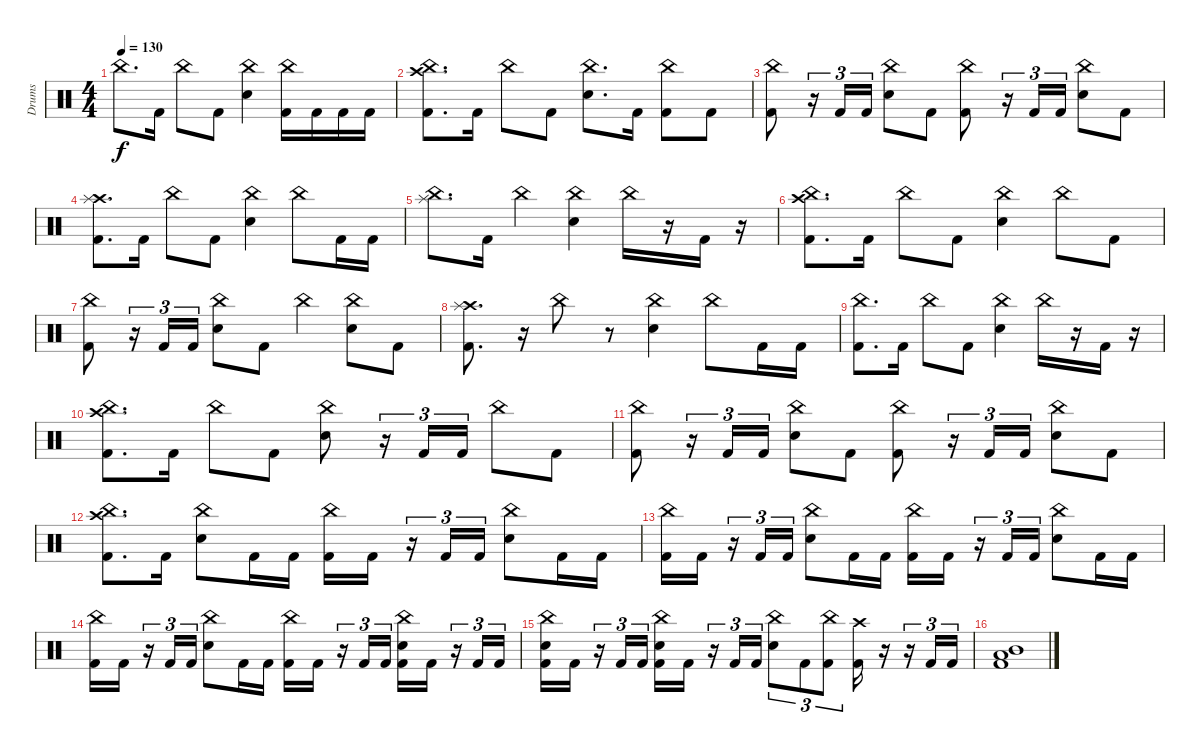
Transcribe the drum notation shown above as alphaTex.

\track ("Drums" "Drums") {instrument percussion}
\staff {score}
\articulation defaults
\ts (4 4)
\tempo 130
\clef neutral
\ks c "China (hit)".8{d dy f} "Kick (hit) 2".16 "China (hit)".8 "Kick (hit) 2".8
("China (hit)" "Electric Snare (hit)").4 ("China (hit)" "Kick (hit) 2").16 "Kick (hit) 2".16 "Kick (hit) 2".16 "Kick (hit) 2".16 |
("China (hit)" "Crash high (hit)" "Kick (hit) 2").8{d} "Kick (hit) 2".16 "China (hit)".8 "Kick (hit) 2".8 ("China (hit)" "Electric Snare (hit)").8{d} "Kick (hit) 2".16 ("China (hit)" "Kick (hit) 2").8 "Kick (hit) 2".8 |
("China (hit)" "Kick (hit) 2").8 r.16{tu (3 2)} "Kick (hit) 2".16{tu (3 2)} "Kick (hit) 2".16{tu (3 2)} ("China (hit)" "Electric Snare (hit)").8 "Kick (hit) 2".8 ("China (hit)" "Kick (hit) 2").8 r.16{tu (3 2)} "Kick (hit) 2".16{tu (3 2)} "Kick (hit) 2".16{tu (3 2)} ("China (hit)" "Electric Snare (hit)").8 "Kick (hit) 2".8 |
("Crash high (hit)" "Splash (hit)" "Kick (hit) 2").8{d} "Kick (hit) 2".16 "China (hit)".8 "Kick (hit) 2".8 ("China (hit)" "Electric Snare (hit)").4 "China (hit)".8 "Kick (hit) 2".16 "Kick (hit) 2".16 |
("China (hit)" "Splash (hit)").8{d} "Kick (hit) 2".16 "China (hit)".4 ("China (hit)" "Electric Snare (hit)").4 "China (hit)".16 r.16 "Kick (hit) 2".16 r.16 |
("China (hit)" "Crash high (hit)" "Kick (hit) 2").8{d} "Kick (hit) 2".16 "China (hit)".8 "Kick (hit) 2".8 ("China (hit)" "Electric Snare (hit)").4 "China (hit)".8 "Kick (hit) 2".8 |
("China (hit)" "Kick (hit) 2").8 r.16{tu (3 2)} "Kick (hit) 2".16{tu (3 2)} "Kick (hit) 2".16{tu (3 2)} ("China (hit)" "Electric Snare (hit)").8 "Kick (hit) 2".8 "China (hit)".4 ("China (hit)" "Electric Snare (hit)").8 "Kick (hit) 2".8 |
("Crash high (hit)" "Splash (hit)" "Kick (hit) 2").8{d} r.16 "China (hit)".8 r.8 ("China (hit)" "Electric Snare (hit)").4 "China (hit)".8 "Kick (hit) 2".16 "Kick (hit) 2".16 |
("China (hit)" "Kick (hit) 2").8{d} "Kick (hit) 2".16 "China (hit)".8 "Kick (hit) 2".8 ("China (hit)" "Electric Snare (hit)").4 "China (hit)".16 r.16 "Kick (hit) 2".16 r.16 |
("China (hit)" "Crash high (hit)" "Kick (hit) 2").8{d} "Kick (hit) 2".16 "China (hit)".8 "Kick (hit) 2".8 ("China (hit)" "Electric Snare (hit)").8 r.16{tu (3 2)} "Kick (hit) 2".16{tu (3 2)} "Kick (hit) 2".16{tu (3 2)} "China (hit)".8 "Kick (hit) 2".8 |
("China (hit)" "Kick (hit) 2").8 r.16{tu (3 2)} "Kick (hit) 2".16{tu (3 2)} "Kick (hit) 2".16{tu (3 2)} ("China (hit)" "Electric Snare (hit)").8 "Kick (hit) 2".8 ("China (hit)" "Kick (hit) 2").8 r.16{tu (3 2)} "Kick (hit) 2".16{tu (3 2)} "Kick (hit) 2".16{tu (3 2)} ("China (hit)" "Electric Snare (hit)").8 "Kick (hit) 2".8 |
("Crash high (hit)" "China (hit)" "Kick (hit) 2").8{d} "Kick (hit) 2".16 ("China (hit)" "Electric Snare (hit)").8 "Kick (hit) 2".16 "Kick (hit) 2".16 ("China (hit)" "Kick (hit) 2").16 "Kick (hit) 2".16 r.16{tu (3 2)} "Kick (hit) 2".16{tu (3 2)} "Kick (hit) 2".16{tu (3 2)} ("China (hit)" "Electric Snare (hit)").8 "Kick (hit) 2".16 "Kick (hit) 2".16 |
("China (hit)" "Kick (hit) 2").16 "Kick (hit) 2".16 r.16{tu (3 2)} "Kick (hit) 2".16{tu (3 2)} "Kick (hit) 2".16{tu (3 2)} ("China (hit)" "Electric Snare (hit)").8 "Kick (hit) 2".16 "Kick (hit) 2".16 ("China (hit)" "Kick (hit) 2").16 "Kick (hit) 2".16 r.16{tu (3 2)} "Kick (hit) 2".16{tu (3 2)} "Kick (hit) 2".16{tu (3 2)} ("China (hit)" "Electric Snare (hit)").8 "Kick (hit) 2".16 "Kick (hit) 2".16 |
("China (hit)" "Kick (hit) 2").16 "Kick (hit) 2".16 r.16{tu (3 2)} "Kick (hit) 2".16{tu (3 2)} "Kick (hit) 2".16{tu (3 2)} ("China (hit)" "Electric Snare (hit)").8 "Kick (hit) 2".16 "Kick (hit) 2".16 ("China (hit)" "Kick (hit) 2").16 "Kick (hit) 2".16 r.16{tu (3 2)} "Kick (hit) 2".16{tu (3 2)} "Kick (hit) 2".16{tu (3 2)} ("China (hit)" "Electric Snare (hit)" "Kick (hit) 2").16 "Kick (hit) 2".16 r.16{tu (3 2)} "Kick (hit) 2".16{tu (3 2)} "Kick (hit) 2".16{tu (3 2)} |
("China (hit)" "Electric Snare (hit)" "Kick (hit) 2").16 "Kick (hit) 2".16 r.16{tu (3 2)} "Kick (hit) 2".16{tu (3 2)} "Kick (hit) 2".16{tu (3 2)} ("China (hit)" "Electric Snare (hit)" "Kick (hit) 2").16 "Kick (hit) 2".16 r.16{tu (3 2)} "Kick (hit) 2".16{tu (3 2)} "Kick (hit) 2".16{tu (3 2)} ("China (hit)" "Electric Snare (hit)").8{tu (3 2)} "Kick (hit) 2".8{tu (3 2)} ("China (hit)" "Kick (hit) 2").8{tu (3 2)} ("Crash high (hit)" "Kick (hit) 2").16 r.16 r.16{tu (3 2)} "Kick (hit) 2".16{tu (3 2)} "Kick (hit) 2".16{tu (3 2)} |
("Low Floor Tom (hit)" "Mid Tom (hit)" "Kick (hit) 2").1
